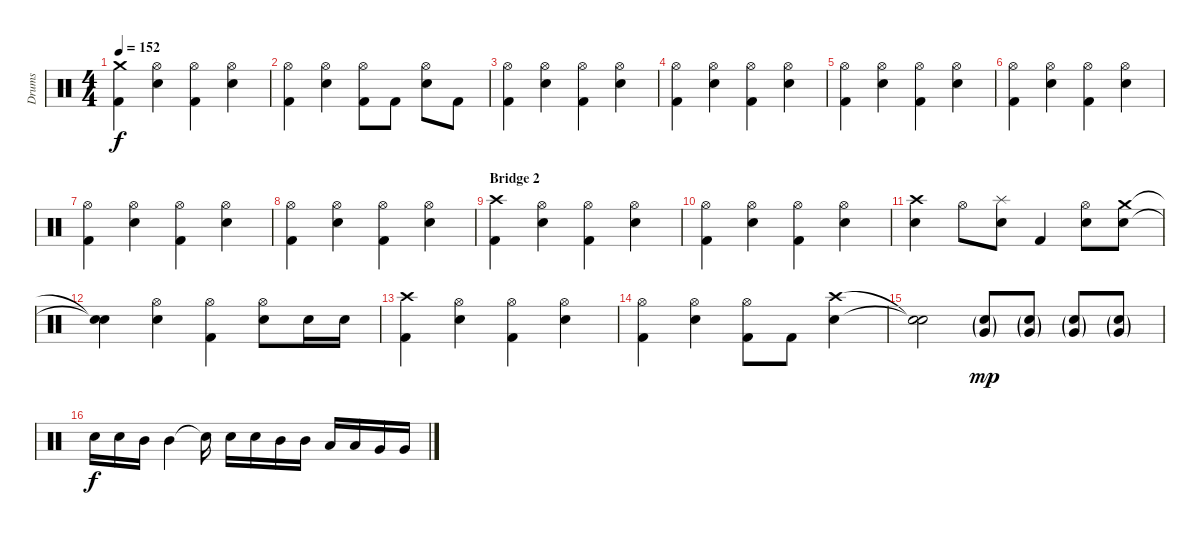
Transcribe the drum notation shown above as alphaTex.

\track ("Drums" "Drums") {instrument percussion}
\staff {score}
\articulation defaults
\ts (4 4)
\tempo 152
\clef neutral
\ks c
("Crash medium (hit)" "Kick (hit) 2").4{dy f} ("Hi-Hat (open)" "Snare (hit) 2").4 ("Hi-Hat (open)" "Kick (hit) 2").4 ("Hi-Hat (open)" "Snare (hit) 2").4 |
("Hi-Hat (open)" "Kick (hit) 2").4 ("Hi-Hat (open)" "Snare (hit) 2").4 ("Hi-Hat (open)" "Kick (hit) 2").8 "Kick (hit) 2".8 ("Hi-Hat (open)" "Snare (hit) 2").8 "Kick (hit) 2".8 |
("Hi-Hat (open)" "Kick (hit) 2").4 ("Hi-Hat (open)" "Snare (hit) 2").4 ("Hi-Hat (open)" "Kick (hit) 2").4 ("Hi-Hat (open)" "Snare (hit) 2").4 |
("Hi-Hat (open)" "Kick (hit) 2").4 ("Hi-Hat (open)" "Snare (hit) 2").4 ("Hi-Hat (open)" "Kick (hit) 2").4 ("Hi-Hat (open)" "Snare (hit) 2").4 |
("Hi-Hat (open)" "Kick (hit) 2").4 ("Hi-Hat (open)" "Snare (hit) 2").4 ("Hi-Hat (open)" "Kick (hit) 2").4 ("Hi-Hat (open)" "Snare (hit) 2").4 |
("Hi-Hat (open)" "Kick (hit) 2").4 ("Hi-Hat (open)" "Snare (hit) 2").4 ("Hi-Hat (open)" "Kick (hit) 2").4 ("Hi-Hat (open)" "Snare (hit) 2").4 |
("Hi-Hat (open)" "Kick (hit) 2").4 ("Hi-Hat (open)" "Snare (hit) 2").4 ("Hi-Hat (open)" "Kick (hit) 2").4 ("Hi-Hat (open)" "Snare (hit) 2").4 |
("Hi-Hat (open)" "Kick (hit) 2").4 ("Hi-Hat (open)" "Snare (hit) 2").4 ("Hi-Hat (open)" "Kick (hit) 2").4 ("Hi-Hat (open)" "Snare (hit) 2").4 |
\section ("" "Bridge 2")
("Crash high (hit)" "Kick (hit) 2").4 ("Hi-Hat (open)" "Snare (hit) 2").4 ("Hi-Hat (open)" "Kick (hit) 2").4 ("Hi-Hat (open)" "Snare (hit) 2").4 |
("Hi-Hat (open)" "Kick (hit) 2").4 ("Hi-Hat (open)" "Snare (hit) 2").4 ("Hi-Hat (open)" "Kick (hit) 2").4 ("Hi-Hat (open)" "Snare (hit) 2").4 |
("Crash high (hit)" "Snare (hit) 2").4 "Hi-Hat (open)".8 ("Splash (hit)" "Snare (hit) 2").8 "Kick (hit) 2".4 ("Hi-Hat (open)" "Snare (hit) 2").8 ("Crash medium (hit)" "Snare (hit) 2").8 |
("Snare (hit)"{t} "Snare (hit)"{t}).4 ("Hi-Hat (open)" "Snare (hit) 2").4 ("Hi-Hat (open)" "Kick (hit) 2").4 ("Hi-Hat (open)" "Snare (hit) 2").8 "Snare (hit) 2".16 "Snare (hit) 2".16 |
("Crash high (hit)" "Kick (hit) 2").4 ("Hi-Hat (open)" "Snare (hit) 2").4 ("Hi-Hat (open)" "Kick (hit) 2").4 ("Hi-Hat (open)" "Snare (hit) 2").4 |
("Hi-Hat (open)" "Kick (hit) 2").4 ("Hi-Hat (open)" "Snare (hit) 2").4 ("Hi-Hat (open)" "Kick (hit) 2").8 "Kick (hit) 2".8 ("Crash high (hit)" "Snare (hit) 2").4 |
("Snare (hit)"{t} "Snare (hit)"{t}).2 ("Very Low Tom (hit)"{g} "Snare (hit) 2"{g}).8{dy mp volume 10} ("Very Low Tom (hit)"{g} "Snare (hit) 2"{g}).8 ("Very Low Tom (hit)"{g} "Snare (hit) 2"{g}).8{volume 13} ("Very Low Tom (hit)"{g} "Snare (hit) 2"{g}).8 |
"Snare (hit) 2".16{dy f} "Snare (hit) 2".16 "Mid Tom (hit)".16 "Mid Tom (hit)".4 "Snare (hit)"{t}.16 "Snare (hit) 2".16 "Snare (hit) 2".16 "Mid Tom (hit)".16 "Mid Tom (hit)".16 "Low Tom (hit)".16 "Low Tom (hit)".16 "Very Low Tom (hit)".16 "Very Low Tom (hit)".16
